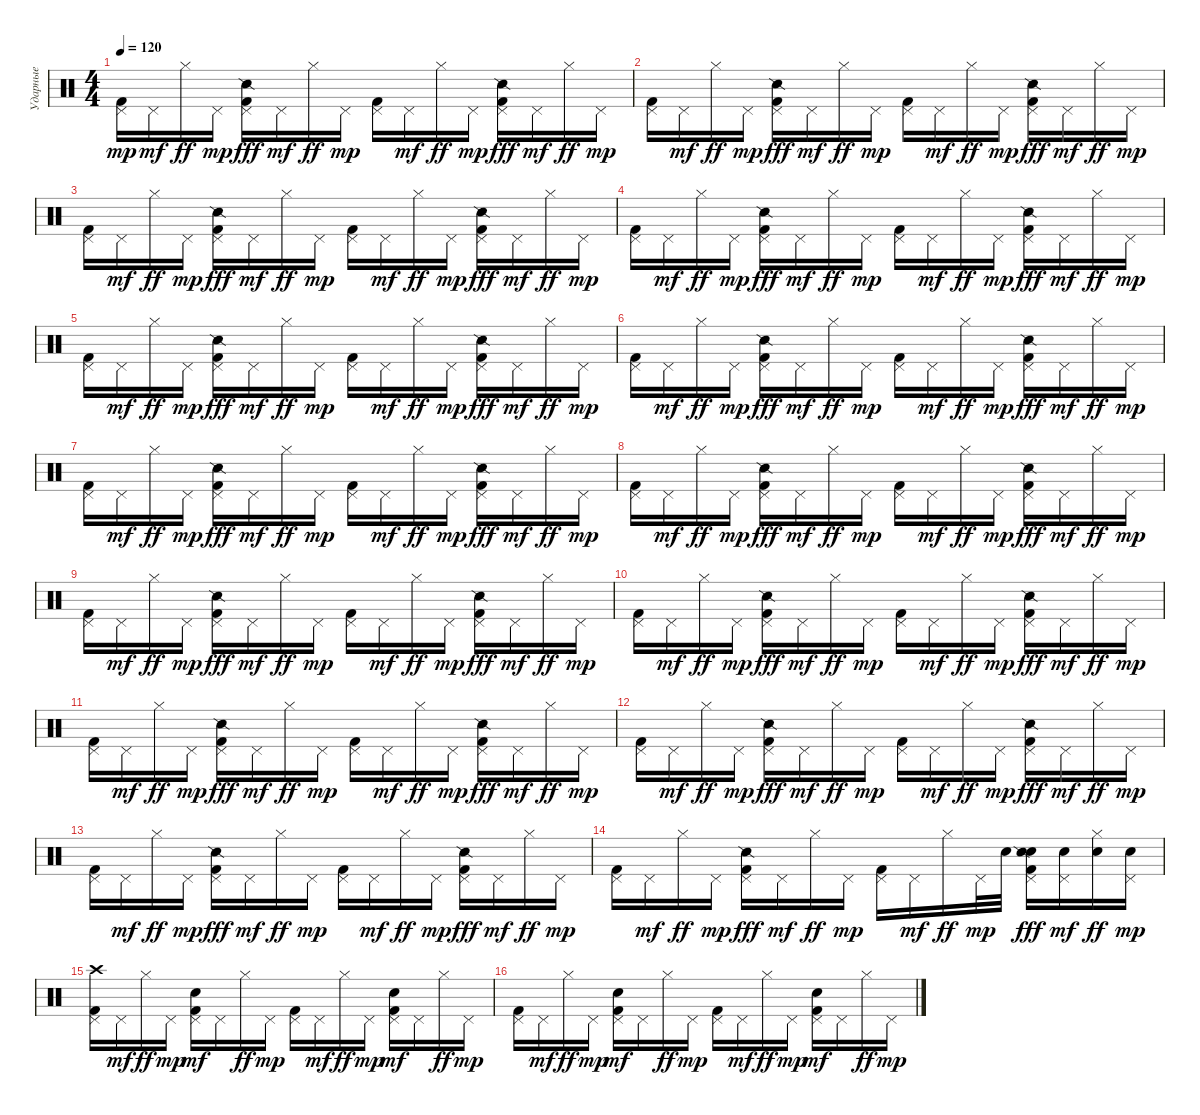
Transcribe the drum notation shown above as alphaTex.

\track ("Ударные" "Ударные") {instrument percussion}
\staff {score}
\articulation defaults
\ts (4 4)
\tempo 120
\clef neutral
\ks c
("Pedal Hi-Hat (hit)" "Kick (hit) 2").16{dy mp} "Pedal Hi-Hat (hit)".16{dy mf} "Hi-Hat (closed)".16{dy ff} "Pedal Hi-Hat (hit)".16{dy mp} ("Pedal Hi-Hat (hit)" "Snare (side stick) 2" "Kick (hit) 2").16{dy fff} "Pedal Hi-Hat (hit)".16{dy mf} "Hi-Hat (closed)".16{dy ff} "Pedal Hi-Hat (hit)".16{dy mp} ("Pedal Hi-Hat (hit)" "Kick (hit) 2").16 "Pedal Hi-Hat (hit)".16{dy mf} "Hi-Hat (closed)".16{dy ff} "Pedal Hi-Hat (hit)".16{dy mp} ("Pedal Hi-Hat (hit)" "Snare (side stick) 2" "Kick (hit) 2").16{dy fff} "Pedal Hi-Hat (hit)".16{dy mf} "Hi-Hat (closed)".16{dy ff} "Pedal Hi-Hat (hit)".16{dy mp} |
("Pedal Hi-Hat (hit)" "Kick (hit) 2").16 "Pedal Hi-Hat (hit)".16{dy mf} "Hi-Hat (closed)".16{dy ff} "Pedal Hi-Hat (hit)".16{dy mp} ("Pedal Hi-Hat (hit)" "Snare (side stick) 2" "Kick (hit) 2").16{dy fff} "Pedal Hi-Hat (hit)".16{dy mf} "Hi-Hat (closed)".16{dy ff} "Pedal Hi-Hat (hit)".16{dy mp} ("Pedal Hi-Hat (hit)" "Kick (hit) 2").16 "Pedal Hi-Hat (hit)".16{dy mf} "Hi-Hat (closed)".16{dy ff} "Pedal Hi-Hat (hit)".16{dy mp} ("Pedal Hi-Hat (hit)" "Snare (side stick) 2" "Kick (hit) 2").16{dy fff} "Pedal Hi-Hat (hit)".16{dy mf} "Hi-Hat (closed)".16{dy ff} "Pedal Hi-Hat (hit)".16{dy mp} |
("Pedal Hi-Hat (hit)" "Kick (hit) 2").16 "Pedal Hi-Hat (hit)".16{dy mf} "Hi-Hat (closed)".16{dy ff} "Pedal Hi-Hat (hit)".16{dy mp} ("Pedal Hi-Hat (hit)" "Snare (side stick) 2" "Kick (hit) 2").16{dy fff} "Pedal Hi-Hat (hit)".16{dy mf} "Hi-Hat (closed)".16{dy ff} "Pedal Hi-Hat (hit)".16{dy mp} ("Pedal Hi-Hat (hit)" "Kick (hit) 2").16 "Pedal Hi-Hat (hit)".16{dy mf} "Hi-Hat (closed)".16{dy ff} "Pedal Hi-Hat (hit)".16{dy mp} ("Pedal Hi-Hat (hit)" "Snare (side stick) 2" "Kick (hit) 2").16{dy fff} "Pedal Hi-Hat (hit)".16{dy mf} "Hi-Hat (closed)".16{dy ff} "Pedal Hi-Hat (hit)".16{dy mp} |
("Pedal Hi-Hat (hit)" "Kick (hit) 2").16 "Pedal Hi-Hat (hit)".16{dy mf} "Hi-Hat (closed)".16{dy ff} "Pedal Hi-Hat (hit)".16{dy mp} ("Pedal Hi-Hat (hit)" "Snare (side stick) 2" "Kick (hit) 2").16{dy fff} "Pedal Hi-Hat (hit)".16{dy mf} "Hi-Hat (closed)".16{dy ff} "Pedal Hi-Hat (hit)".16{dy mp} ("Pedal Hi-Hat (hit)" "Kick (hit) 2").16 "Pedal Hi-Hat (hit)".16{dy mf} "Hi-Hat (closed)".16{dy ff} "Pedal Hi-Hat (hit)".16{dy mp} ("Pedal Hi-Hat (hit)" "Snare (side stick) 2" "Kick (hit) 2").16{dy fff} "Pedal Hi-Hat (hit)".16{dy mf} "Hi-Hat (closed)".16{dy ff} "Pedal Hi-Hat (hit)".16{dy mp} |
("Pedal Hi-Hat (hit)" "Kick (hit) 2").16 "Pedal Hi-Hat (hit)".16{dy mf} "Hi-Hat (closed)".16{dy ff} "Pedal Hi-Hat (hit)".16{dy mp} ("Pedal Hi-Hat (hit)" "Snare (side stick) 2" "Kick (hit) 2").16{dy fff} "Pedal Hi-Hat (hit)".16{dy mf} "Hi-Hat (closed)".16{dy ff} "Pedal Hi-Hat (hit)".16{dy mp} ("Pedal Hi-Hat (hit)" "Kick (hit) 2").16 "Pedal Hi-Hat (hit)".16{dy mf} "Hi-Hat (closed)".16{dy ff} "Pedal Hi-Hat (hit)".16{dy mp} ("Pedal Hi-Hat (hit)" "Snare (side stick) 2" "Kick (hit) 2").16{dy fff} "Pedal Hi-Hat (hit)".16{dy mf} "Hi-Hat (closed)".16{dy ff} "Pedal Hi-Hat (hit)".16{dy mp} |
("Pedal Hi-Hat (hit)" "Kick (hit) 2").16 "Pedal Hi-Hat (hit)".16{dy mf} "Hi-Hat (closed)".16{dy ff} "Pedal Hi-Hat (hit)".16{dy mp} ("Pedal Hi-Hat (hit)" "Snare (side stick) 2" "Kick (hit) 2").16{dy fff} "Pedal Hi-Hat (hit)".16{dy mf} "Hi-Hat (closed)".16{dy ff} "Pedal Hi-Hat (hit)".16{dy mp} ("Pedal Hi-Hat (hit)" "Kick (hit) 2").16 "Pedal Hi-Hat (hit)".16{dy mf} "Hi-Hat (closed)".16{dy ff} "Pedal Hi-Hat (hit)".16{dy mp} ("Pedal Hi-Hat (hit)" "Snare (side stick) 2" "Kick (hit) 2").16{dy fff} "Pedal Hi-Hat (hit)".16{dy mf} "Hi-Hat (closed)".16{dy ff} "Pedal Hi-Hat (hit)".16{dy mp} |
("Pedal Hi-Hat (hit)" "Kick (hit) 2").16 "Pedal Hi-Hat (hit)".16{dy mf} "Hi-Hat (closed)".16{dy ff} "Pedal Hi-Hat (hit)".16{dy mp} ("Pedal Hi-Hat (hit)" "Snare (side stick) 2" "Kick (hit) 2").16{dy fff} "Pedal Hi-Hat (hit)".16{dy mf} "Hi-Hat (closed)".16{dy ff} "Pedal Hi-Hat (hit)".16{dy mp} ("Pedal Hi-Hat (hit)" "Kick (hit) 2").16 "Pedal Hi-Hat (hit)".16{dy mf} "Hi-Hat (closed)".16{dy ff} "Pedal Hi-Hat (hit)".16{dy mp} ("Pedal Hi-Hat (hit)" "Snare (side stick) 2" "Kick (hit) 2").16{dy fff} "Pedal Hi-Hat (hit)".16{dy mf} "Hi-Hat (closed)".16{dy ff} "Pedal Hi-Hat (hit)".16{dy mp} |
("Pedal Hi-Hat (hit)" "Kick (hit) 2").16 "Pedal Hi-Hat (hit)".16{dy mf} "Hi-Hat (closed)".16{dy ff} "Pedal Hi-Hat (hit)".16{dy mp} ("Pedal Hi-Hat (hit)" "Snare (side stick) 2" "Kick (hit) 2").16{dy fff} "Pedal Hi-Hat (hit)".16{dy mf} "Hi-Hat (closed)".16{dy ff} "Pedal Hi-Hat (hit)".16{dy mp} ("Pedal Hi-Hat (hit)" "Kick (hit) 2").16 "Pedal Hi-Hat (hit)".16{dy mf} "Hi-Hat (closed)".16{dy ff} "Pedal Hi-Hat (hit)".16{dy mp} ("Pedal Hi-Hat (hit)" "Snare (side stick) 2" "Kick (hit) 2").16{dy fff} "Pedal Hi-Hat (hit)".16{dy mf} "Hi-Hat (closed)".16{dy ff} "Pedal Hi-Hat (hit)".16{dy mp} |
("Pedal Hi-Hat (hit)" "Kick (hit) 2").16 "Pedal Hi-Hat (hit)".16{dy mf} "Hi-Hat (closed)".16{dy ff} "Pedal Hi-Hat (hit)".16{dy mp} ("Pedal Hi-Hat (hit)" "Snare (side stick) 2" "Kick (hit) 2").16{dy fff} "Pedal Hi-Hat (hit)".16{dy mf} "Hi-Hat (closed)".16{dy ff} "Pedal Hi-Hat (hit)".16{dy mp} ("Pedal Hi-Hat (hit)" "Kick (hit) 2").16 "Pedal Hi-Hat (hit)".16{dy mf} "Hi-Hat (closed)".16{dy ff} "Pedal Hi-Hat (hit)".16{dy mp} ("Pedal Hi-Hat (hit)" "Snare (side stick) 2" "Kick (hit) 2").16{dy fff} "Pedal Hi-Hat (hit)".16{dy mf} "Hi-Hat (closed)".16{dy ff} "Pedal Hi-Hat (hit)".16{dy mp} |
("Pedal Hi-Hat (hit)" "Kick (hit) 2").16 "Pedal Hi-Hat (hit)".16{dy mf} "Hi-Hat (closed)".16{dy ff} "Pedal Hi-Hat (hit)".16{dy mp} ("Pedal Hi-Hat (hit)" "Snare (side stick) 2" "Kick (hit) 2").16{dy fff} "Pedal Hi-Hat (hit)".16{dy mf} "Hi-Hat (closed)".16{dy ff} "Pedal Hi-Hat (hit)".16{dy mp} ("Pedal Hi-Hat (hit)" "Kick (hit) 2").16 "Pedal Hi-Hat (hit)".16{dy mf} "Hi-Hat (closed)".16{dy ff} "Pedal Hi-Hat (hit)".16{dy mp} ("Pedal Hi-Hat (hit)" "Snare (side stick) 2" "Kick (hit) 2").16{dy fff} "Pedal Hi-Hat (hit)".16{dy mf} "Hi-Hat (closed)".16{dy ff} "Pedal Hi-Hat (hit)".16{dy mp} |
("Pedal Hi-Hat (hit)" "Kick (hit) 2").16 "Pedal Hi-Hat (hit)".16{dy mf} "Hi-Hat (closed)".16{dy ff} "Pedal Hi-Hat (hit)".16{dy mp} ("Pedal Hi-Hat (hit)" "Snare (side stick) 2" "Kick (hit) 2").16{dy fff} "Pedal Hi-Hat (hit)".16{dy mf} "Hi-Hat (closed)".16{dy ff} "Pedal Hi-Hat (hit)".16{dy mp} ("Pedal Hi-Hat (hit)" "Kick (hit) 2").16 "Pedal Hi-Hat (hit)".16{dy mf} "Hi-Hat (closed)".16{dy ff} "Pedal Hi-Hat (hit)".16{dy mp} ("Pedal Hi-Hat (hit)" "Snare (side stick) 2" "Kick (hit) 2").16{dy fff} "Pedal Hi-Hat (hit)".16{dy mf} "Hi-Hat (closed)".16{dy ff} "Pedal Hi-Hat (hit)".16{dy mp} |
("Pedal Hi-Hat (hit)" "Kick (hit) 2").16 "Pedal Hi-Hat (hit)".16{dy mf} "Hi-Hat (closed)".16{dy ff} "Pedal Hi-Hat (hit)".16{dy mp} ("Pedal Hi-Hat (hit)" "Snare (side stick) 2" "Kick (hit) 2").16{dy fff} "Pedal Hi-Hat (hit)".16{dy mf} "Hi-Hat (closed)".16{dy ff} "Pedal Hi-Hat (hit)".16{dy mp} ("Pedal Hi-Hat (hit)" "Kick (hit) 2").16 "Pedal Hi-Hat (hit)".16{dy mf} "Hi-Hat (closed)".16{dy ff} "Pedal Hi-Hat (hit)".16{dy mp} ("Pedal Hi-Hat (hit)" "Snare (side stick) 2" "Kick (hit) 2").16{dy fff} "Pedal Hi-Hat (hit)".16{dy mf} "Hi-Hat (closed)".16{dy ff} "Pedal Hi-Hat (hit)".16{dy mp} |
("Pedal Hi-Hat (hit)" "Kick (hit) 2").16 "Pedal Hi-Hat (hit)".16{dy mf} "Hi-Hat (closed)".16{dy ff} "Pedal Hi-Hat (hit)".16{dy mp} ("Pedal Hi-Hat (hit)" "Snare (side stick) 2" "Kick (hit) 2").16{dy fff} "Pedal Hi-Hat (hit)".16{dy mf} "Hi-Hat (closed)".16{dy ff} "Pedal Hi-Hat (hit)".16{dy mp} ("Pedal Hi-Hat (hit)" "Kick (hit) 2").16 "Pedal Hi-Hat (hit)".16{dy mf} "Hi-Hat (closed)".16{dy ff} "Pedal Hi-Hat (hit)".16{dy mp} ("Pedal Hi-Hat (hit)" "Snare (side stick) 2" "Kick (hit) 2").16{dy fff} "Pedal Hi-Hat (hit)".16{dy mf} "Hi-Hat (closed)".16{dy ff} "Pedal Hi-Hat (hit)".16{dy mp} |
("Pedal Hi-Hat (hit)" "Kick (hit) 2").16 "Pedal Hi-Hat (hit)".16{dy mf} "Hi-Hat (closed)".16{dy ff} "Pedal Hi-Hat (hit)".16{dy mp} ("Pedal Hi-Hat (hit)" "Snare (side stick) 2" "Kick (hit) 2").16{dy fff} "Pedal Hi-Hat (hit)".16{dy mf} "Hi-Hat (closed)".16{dy ff} "Pedal Hi-Hat (hit)".16{dy mp} ("Pedal Hi-Hat (hit)" "Kick (hit) 2").16 "Pedal Hi-Hat (hit)".16{dy mf} "Hi-Hat (closed)".16{dy ff} "Pedal Hi-Hat (hit)".32{dy mp} "Electric Snare (hit)".32 ("Electric Snare (hit)" "Pedal Hi-Hat (hit)" "Snare (side stick) 2" "Kick (hit) 2").16{dy fff} ("Electric Snare (hit)" "Pedal Hi-Hat (hit)").16{dy mf} ("Electric Snare (hit)" "Hi-Hat (closed)").16{dy ff} ("Electric Snare (hit)" "Pedal Hi-Hat (hit)").16{dy mp} |
("Crash high (hit)" "Pedal Hi-Hat (hit)" "Kick (hit) 2").16 "Pedal Hi-Hat (hit)".16{dy mf} "Hi-Hat (closed)".16{dy ff} "Pedal Hi-Hat (hit)".16{dy mp} ("Pedal Hi-Hat (hit)" "Electric Snare (hit)" "Kick (hit) 2").16{dy mf} "Pedal Hi-Hat (hit)".16 "Hi-Hat (closed)".16{dy ff} "Pedal Hi-Hat (hit)".16{dy mp} ("Pedal Hi-Hat (hit)" "Kick (hit) 2").16 "Pedal Hi-Hat (hit)".16{dy mf} "Hi-Hat (closed)".16{dy ff} "Pedal Hi-Hat (hit)".16{dy mp} ("Pedal Hi-Hat (hit)" "Electric Snare (hit)" "Kick (hit) 2").16{dy mf} "Pedal Hi-Hat (hit)".16 "Hi-Hat (closed)".16{dy ff} "Pedal Hi-Hat (hit)".16{dy mp} |
("Pedal Hi-Hat (hit)" "Kick (hit) 2").16 "Pedal Hi-Hat (hit)".16{dy mf} "Hi-Hat (closed)".16{dy ff} "Pedal Hi-Hat (hit)".16{dy mp} ("Pedal Hi-Hat (hit)" "Electric Snare (hit)" "Kick (hit) 2").16{dy mf} "Pedal Hi-Hat (hit)".16 "Hi-Hat (closed)".16{dy ff} "Pedal Hi-Hat (hit)".16{dy mp} ("Pedal Hi-Hat (hit)" "Kick (hit) 2").16 "Pedal Hi-Hat (hit)".16{dy mf} "Hi-Hat (closed)".16{dy ff} "Pedal Hi-Hat (hit)".16{dy mp} ("Pedal Hi-Hat (hit)" "Electric Snare (hit)" "Kick (hit) 2").16{dy mf} "Pedal Hi-Hat (hit)".16 "Hi-Hat (closed)".16{dy ff} "Pedal Hi-Hat (hit)".16{dy mp}
